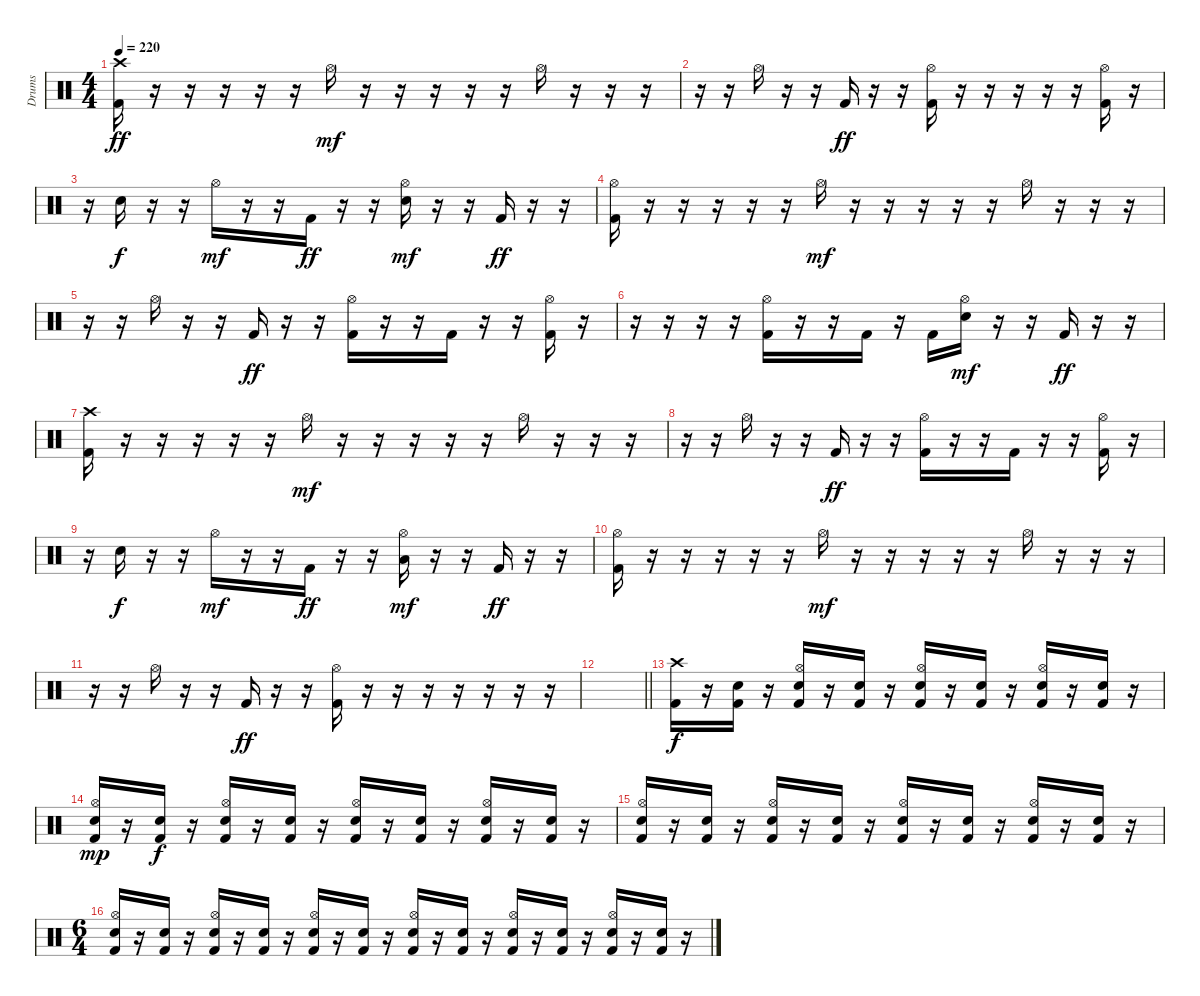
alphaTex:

\track ("Drums" "Drums") {instrument percussion}
\staff {score}
\articulation defaults
\ts (4 4)
\tempo 220
\clef neutral
\ks c
("Crash high (hit)" "Kick (hit) 2").16{dy ff} r.16 r.16 r.16 r.16 r.16 "Hi-Hat (open)".16{dy mf} r.16 r.16 r.16 r.16 r.16 "Hi-Hat (open)".16 r.16 r.16 r.16 |
r.16 r.16 "Hi-Hat (open)".16 r.16 r.16 "Kick (hit) 2".16{dy ff} r.16 r.16 ("Hi-Hat (open)" "Kick (hit) 2").16 r.16 r.16 r.16 r.16 r.16 ("Hi-Hat (open)" "Kick (hit) 2").16 r.16 |
r.16 "Snare (hit) 2".16{dy f} r.16 r.16 "Hi-Hat (open)".16{dy mf} r.16 r.16 "Kick (hit) 2".16{dy ff} r.16 r.16 ("Hi-Hat (open)" "Snare (hit) 2").16{dy mf} r.16 r.16 "Kick (hit) 2".16{dy ff} r.16 r.16 |
("Hi-Hat (open)" "Kick (hit) 2").16 r.16 r.16 r.16 r.16 r.16 "Hi-Hat (open)".16{dy mf} r.16 r.16 r.16 r.16 r.16 "Hi-Hat (open)".16 r.16 r.16 r.16 |
r.16 r.16 "Hi-Hat (open)".16 r.16 r.16 "Kick (hit) 2".16{dy ff} r.16 r.16 ("Hi-Hat (open)" "Kick (hit) 2").16 r.16 r.16 "Kick (hit) 2".16 r.16 r.16 ("Hi-Hat (open)" "Kick (hit) 2").16 r.16 |
r.16 r.16 r.16 r.16 ("Hi-Hat (open)" "Kick (hit) 2").16 r.16 r.16 "Kick (hit) 2".16 r.16 "Kick (hit) 2".16 ("Hi-Hat (open)" "Snare (hit) 2").16{dy mf} r.16 r.16 "Kick (hit) 2".16{dy ff} r.16 r.16 |
("Crash high (hit)" "Kick (hit) 2").16 r.16 r.16 r.16 r.16 r.16 "Hi-Hat (open)".16{dy mf} r.16 r.16 r.16 r.16 r.16 "Hi-Hat (open)".16 r.16 r.16 r.16 |
r.16 r.16 "Hi-Hat (open)".16 r.16 r.16 "Kick (hit) 2".16{dy ff} r.16 r.16 ("Hi-Hat (open)" "Kick (hit) 2").16 r.16 r.16 "Kick (hit) 2".16 r.16 r.16 ("Hi-Hat (open)" "Kick (hit) 2").16 r.16 |
r.16 "Snare (hit) 2".16{dy f} r.16 r.16 "Hi-Hat (open)".16{dy mf} r.16 r.16 "Kick (hit) 2".16{dy ff} r.16 r.16 ("Hi-Hat (open)" "Low Tom (hit)").16{dy mf} r.16 r.16 "Kick (hit) 2".16{dy ff} r.16 r.16 |
("Hi-Hat (open)" "Kick (hit) 2").16 r.16 r.16 r.16 r.16 r.16 "Hi-Hat (open)".16{dy mf} r.16 r.16 r.16 r.16 r.16 "Hi-Hat (open)".16 r.16 r.16 r.16 |
r.16 r.16 "Hi-Hat (open)".16 r.16 r.16 "Kick (hit) 2".16{dy ff} r.16 r.16 ("Hi-Hat (open)" "Kick (hit) 2").16 r.16 r.16 r.16 r.16 r.16 r.16 r.16 |
\barLineRight lightlight
|
("Crash high (hit)" "Kick (hit) 2").16{dy f} r.16 ("Snare (hit) 2" "Kick (hit) 2").16 r.16 ("Hi-Hat (open)" "Snare (hit) 2" "Kick (hit) 2").16 r.16 ("Snare (hit) 2" "Kick (hit) 2").16 r.16 ("Hi-Hat (open)" "Snare (hit) 2" "Kick (hit) 2").16 r.16 ("Snare (hit) 2" "Kick (hit) 2").16 r.16 ("Hi-Hat (open)" "Snare (hit) 2" "Kick (hit) 2").16 r.16 ("Snare (hit) 2" "Kick (hit) 2").16 r.16 |
("Hi-Hat (open)" "Snare (hit) 2" "Kick (hit) 2").16{dy mp} r.16 ("Snare (hit) 2" "Kick (hit) 2").16{dy f} r.16 ("Hi-Hat (open)" "Snare (hit) 2" "Kick (hit) 2").16 r.16 ("Snare (hit) 2" "Kick (hit) 2").16 r.16 ("Hi-Hat (open)" "Snare (hit) 2" "Kick (hit) 2").16 r.16 ("Snare (hit) 2" "Kick (hit) 2").16 r.16 ("Hi-Hat (open)" "Snare (hit) 2" "Kick (hit) 2").16 r.16 ("Snare (hit) 2" "Kick (hit) 2").16 r.16 |
("Hi-Hat (open)" "Snare (hit) 2" "Kick (hit) 2").16 r.16 ("Snare (hit) 2" "Kick (hit) 2").16 r.16 ("Hi-Hat (open)" "Snare (hit) 2" "Kick (hit) 2").16 r.16 ("Snare (hit) 2" "Kick (hit) 2").16 r.16 ("Hi-Hat (open)" "Snare (hit) 2" "Kick (hit) 2").16 r.16 ("Snare (hit) 2" "Kick (hit) 2").16 r.16 ("Hi-Hat (open)" "Snare (hit) 2" "Kick (hit) 2").16 r.16 ("Snare (hit) 2" "Kick (hit) 2").16 r.16 |
\ts (6 4)
("Hi-Hat (open)" "Snare (hit) 2" "Kick (hit) 2").16 r.16 ("Snare (hit) 2" "Kick (hit) 2").16 r.16 ("Hi-Hat (open)" "Snare (hit) 2" "Kick (hit) 2").16 r.16 ("Snare (hit) 2" "Kick (hit) 2").16 r.16 ("Hi-Hat (open)" "Snare (hit) 2" "Kick (hit) 2").16 r.16 ("Snare (hit) 2" "Kick (hit) 2").16 r.16 ("Hi-Hat (open)" "Snare (hit) 2" "Kick (hit) 2").16 r.16 ("Snare (hit) 2" "Kick (hit) 2").16 r.16 ("Hi-Hat (open)" "Snare (hit) 2" "Kick (hit) 2").16 r.16 ("Snare (hit) 2" "Kick (hit) 2").16 r.16 ("Hi-Hat (open)" "Snare (hit) 2" "Kick (hit) 2").16 r.16 ("Snare (hit) 2" "Kick (hit) 2").16 r.16
